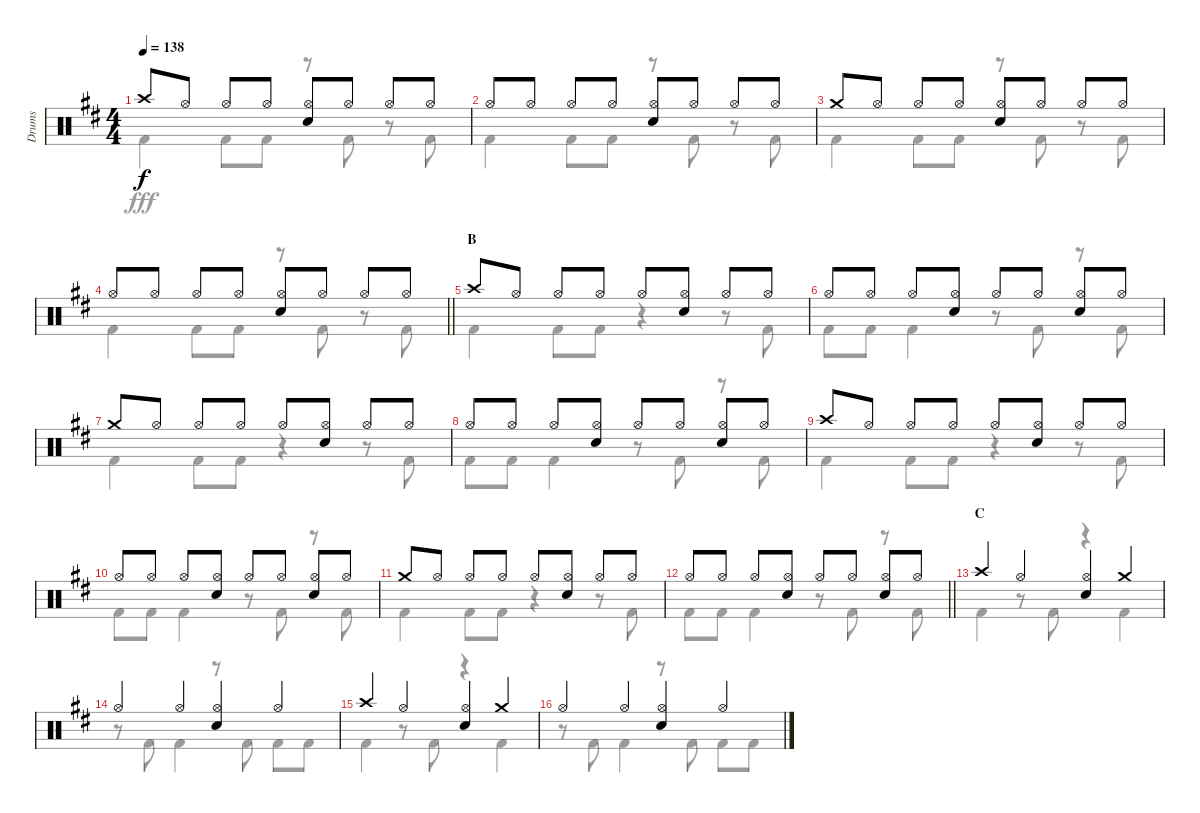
\track ("Drums" "Drums") {instrument percussion}
\staff {score}
\articulation defaults
\voice
\ts (4 4)
\tempo 138
\clef neutral
\ks d "Crash high (hit)".8{dy f} "Hi-Hat (open)".8 "Hi-Hat (open)".8 "Hi-Hat (open)".8
("Hi-Hat (open)" "Snare (hit) 2").8 "Hi-Hat (open)".8 "Hi-Hat (open)".8 "Hi-Hat (open)".8 |
"Hi-Hat (open)".8 "Hi-Hat (open)".8 "Hi-Hat (open)".8 "Hi-Hat (open)".8 ("Hi-Hat (open)" "Snare (hit) 2").8 "Hi-Hat (open)".8 "Hi-Hat (open)".8 "Hi-Hat (open)".8 |
"Crash medium (hit)".8 "Hi-Hat (open)".8 "Hi-Hat (open)".8 "Hi-Hat (open)".8 ("Hi-Hat (open)" "Snare (hit) 2").8 "Hi-Hat (open)".8 "Hi-Hat (open)".8 "Hi-Hat (open)".8 |
\barLineRight lightlight "Hi-Hat (open)".8 "Hi-Hat (open)".8 "Hi-Hat (open)".8 "Hi-Hat (open)".8
("Hi-Hat (open)" "Snare (hit) 2").8 "Hi-Hat (open)".8 "Hi-Hat (open)".8 "Hi-Hat (open)".8 |
\section ("" "B")
"Crash high (hit)".8 "Hi-Hat (open)".8 "Hi-Hat (open)".8 "Hi-Hat (open)".8 "Hi-Hat (open)".8 ("Hi-Hat (open)" "Snare (hit) 2").8 "Hi-Hat (open)".8 "Hi-Hat (open)".8 |
"Hi-Hat (open)".8 "Hi-Hat (open)".8 "Hi-Hat (open)".8 ("Hi-Hat (open)" "Snare (hit) 2").8 "Hi-Hat (open)".8 "Hi-Hat (open)".8 ("Hi-Hat (open)" "Snare (hit) 2").8 "Hi-Hat (open)".8 |
"Crash medium (hit)".8 "Hi-Hat (open)".8 "Hi-Hat (open)".8 "Hi-Hat (open)".8 "Hi-Hat (open)".8 ("Hi-Hat (open)" "Snare (hit) 2").8 "Hi-Hat (open)".8 "Hi-Hat (open)".8 |
"Hi-Hat (open)".8 "Hi-Hat (open)".8 "Hi-Hat (open)".8 ("Hi-Hat (open)" "Snare (hit) 2").8 "Hi-Hat (open)".8 "Hi-Hat (open)".8 ("Hi-Hat (open)" "Snare (hit) 2").8 "Hi-Hat (open)".8 |
"Crash high (hit)".8 "Hi-Hat (open)".8 "Hi-Hat (open)".8 "Hi-Hat (open)".8 "Hi-Hat (open)".8 ("Hi-Hat (open)" "Snare (hit) 2").8 "Hi-Hat (open)".8 "Hi-Hat (open)".8 |
"Hi-Hat (open)".8 "Hi-Hat (open)".8 "Hi-Hat (open)".8 ("Hi-Hat (open)" "Snare (hit) 2").8 "Hi-Hat (open)".8 "Hi-Hat (open)".8 ("Hi-Hat (open)" "Snare (hit) 2").8 "Hi-Hat (open)".8 |
"Crash medium (hit)".8 "Hi-Hat (open)".8 "Hi-Hat (open)".8 "Hi-Hat (open)".8 "Hi-Hat (open)".8 ("Hi-Hat (open)" "Snare (hit) 2").8 "Hi-Hat (open)".8 "Hi-Hat (open)".8 |
\barLineRight lightlight "Hi-Hat (open)".8 "Hi-Hat (open)".8 "Hi-Hat (open)".8
("Hi-Hat (open)" "Snare (hit) 2").8 "Hi-Hat (open)".8 "Hi-Hat (open)".8 ("Hi-Hat (open)" "Snare (hit) 2").8 "Hi-Hat (open)".8 |
\section ("" "C")
"Crash high (hit)".4 "Hi-Hat (open)".4 ("Hi-Hat (open)" "Snare (hit) 2").4 "Crash medium (hit)".4 |
"Hi-Hat (open)".4 "Hi-Hat (open)".4 ("Hi-Hat (open)" "Snare (hit) 2").4 "Hi-Hat (open)".4 |
"Crash high (hit)".4 "Hi-Hat (open)".4 ("Hi-Hat (open)" "Snare (hit) 2").4 "Crash medium (hit)".4 |
"Hi-Hat (open)".4 "Hi-Hat (open)".4 ("Hi-Hat (open)" "Snare (hit) 2").4 "Hi-Hat (open)".4
\voice
\clef neutral
\ottava regular
\simile none
\ks d "Kick (hit) 2".4{dy fff} "Kick (hit) 2".8 "Kick (hit) 2".8
r.8 "Kick (hit) 2".8 r.8 "Kick (hit) 2".8 |
"Kick (hit) 2".4 "Kick (hit) 2".8 "Kick (hit) 2".8 r.8 "Kick (hit) 2".8 r.8 "Kick (hit) 2".8 |
"Kick (hit) 2".4 "Kick (hit) 2".8 "Kick (hit) 2".8 r.8 "Kick (hit) 2".8 r.8 "Kick (hit) 2".8 |
\barLineRight lightlight "Kick (hit) 2".4 "Kick (hit) 2".8 "Kick (hit) 2".8
r.8 "Kick (hit) 2".8 r.8 "Kick (hit) 2".8 |
"Kick (hit) 2".4 "Kick (hit) 2".8 "Kick (hit) 2".8 r.4 r.8 "Kick (hit) 2".8 |
"Kick (hit) 2".8 "Kick (hit) 2".8 "Kick (hit) 2".4 r.8 "Kick (hit) 2".8 r.8 "Kick (hit) 2".8 |
"Kick (hit) 2".4 "Kick (hit) 2".8 "Kick (hit) 2".8 r.4 r.8 "Kick (hit) 2".8 |
"Kick (hit) 2".8 "Kick (hit) 2".8 "Kick (hit) 2".4 r.8 "Kick (hit) 2".8 r.8 "Kick (hit) 2".8 |
"Kick (hit) 2".4 "Kick (hit) 2".8 "Kick (hit) 2".8 r.4 r.8 "Kick (hit) 2".8 |
"Kick (hit) 2".8 "Kick (hit) 2".8 "Kick (hit) 2".4 r.8 "Kick (hit) 2".8 r.8 "Kick (hit) 2".8 |
"Kick (hit) 2".4 "Kick (hit) 2".8 "Kick (hit) 2".8 r.4 r.8 "Kick (hit) 2".8 |
\barLineRight lightlight "Kick (hit) 2".8 "Kick (hit) 2".8 "Kick (hit) 2".4
r.8 "Kick (hit) 2".8 r.8 "Kick (hit) 2".8 |
"Kick (hit) 2".4 r.8 "Kick (hit) 2".8 r.4 "Kick (hit) 2".4 |
r.8 "Kick (hit) 2".8 "Kick (hit) 2".4 r.8 "Kick (hit) 2".8 "Kick (hit) 2".8 "Kick (hit) 2".8 |
"Kick (hit) 2".4 r.8 "Kick (hit) 2".8 r.4 "Kick (hit) 2".4 |
r.8 "Kick (hit) 2".8 "Kick (hit) 2".4 r.8 "Kick (hit) 2".8 "Kick (hit) 2".8 "Kick (hit) 2".8
